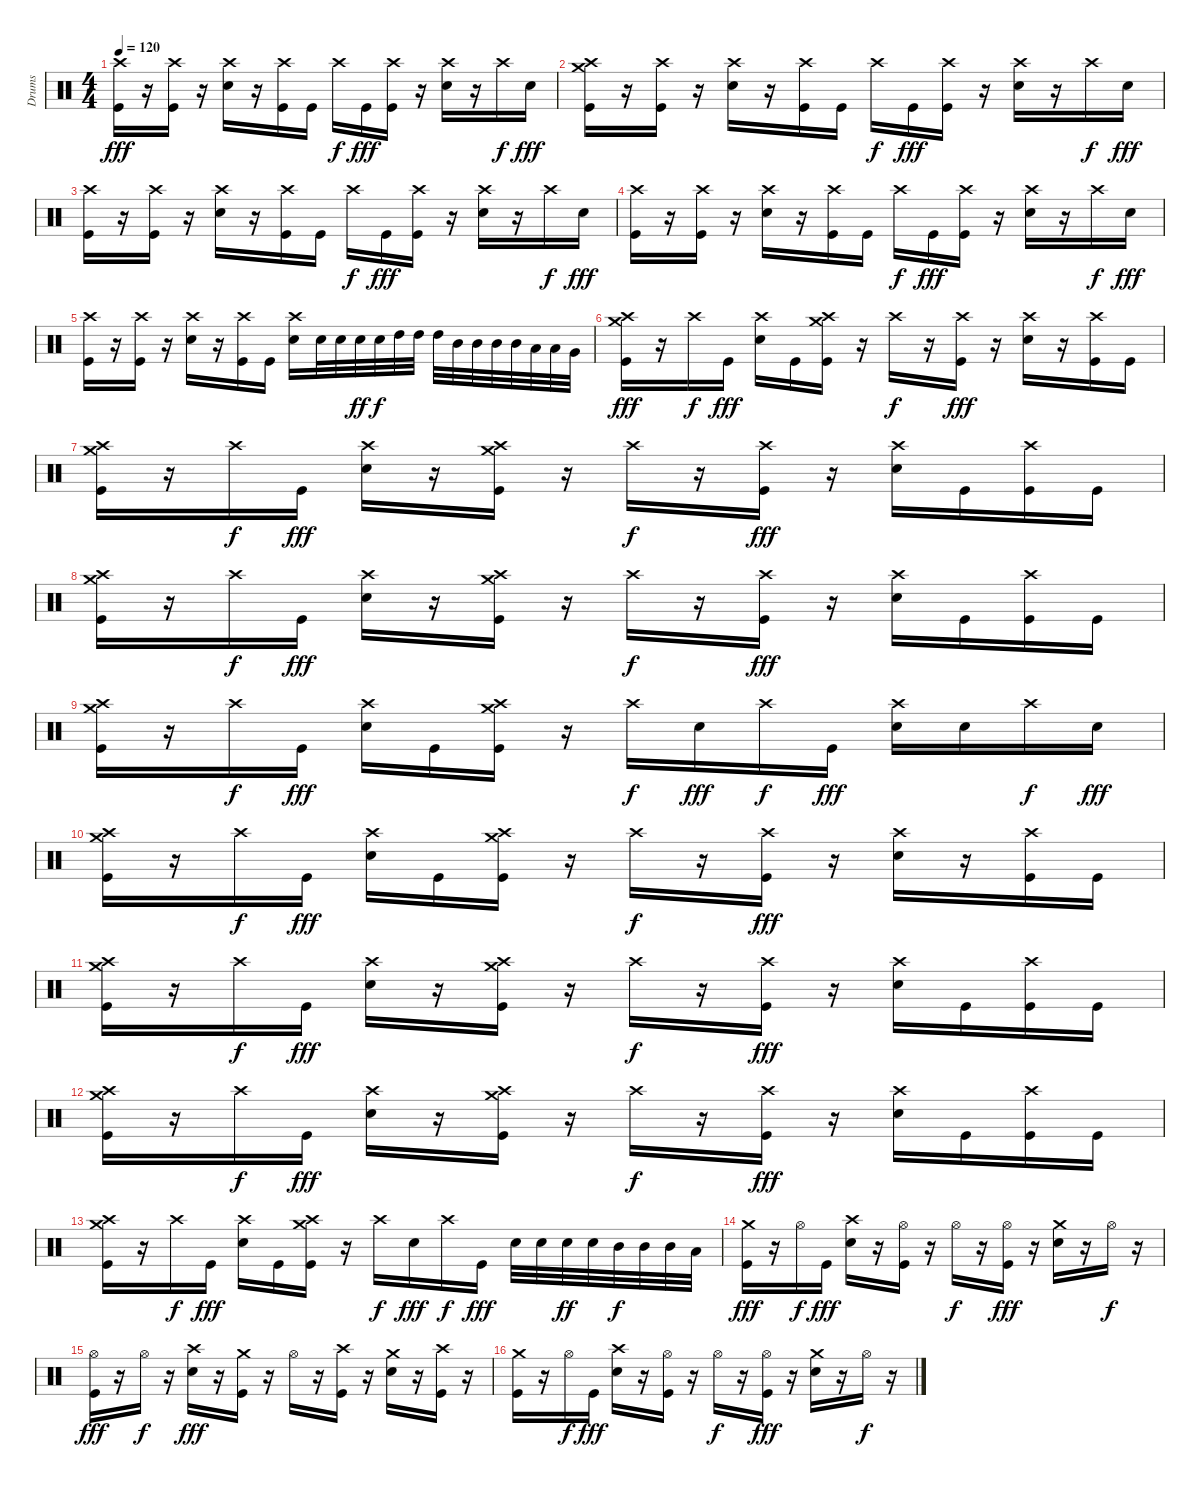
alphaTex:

\track ("Drums" "Drums") {instrument percussion}
\staff {score}
\articulation defaults
\ts (4 4)
\tempo 120
\clef neutral
\ks c
("Crash high (hit)" "Kick (hit)").16{dy fff} r.16 ("Crash high (hit)" "Kick (hit)").16 r.16 ("Crash high (hit)" "Electric Snare (hit)").16 r.16 ("Crash high (hit)" "Kick (hit)").16 "Kick (hit)".16 "Crash high (hit)".16{dy f} "Kick (hit)".16{dy fff} ("Crash high (hit)" "Kick (hit)").16 r.16 ("Crash high (hit)" "Electric Snare (hit)").16 r.16 "Crash high (hit)".16{dy f} "Electric Snare (hit)".16{dy fff} |
("Crash medium (hit)" "Crash high (hit)" "Kick (hit)").16 r.16 ("Crash high (hit)" "Kick (hit)").16 r.16 ("Crash high (hit)" "Electric Snare (hit)").16 r.16 ("Crash high (hit)" "Kick (hit)").16 "Kick (hit)".16 "Crash high (hit)".16{dy f} "Kick (hit)".16{dy fff} ("Crash high (hit)" "Kick (hit)").16 r.16 ("Crash high (hit)" "Electric Snare (hit)").16 r.16 "Crash high (hit)".16{dy f} "Electric Snare (hit)".16{dy fff} |
("Crash high (hit)" "Kick (hit)").16 r.16 ("Crash high (hit)" "Kick (hit)").16 r.16 ("Crash high (hit)" "Electric Snare (hit)").16 r.16 ("Crash high (hit)" "Kick (hit)").16 "Kick (hit)".16 "Crash high (hit)".16{dy f} "Kick (hit)".16{dy fff} ("Crash high (hit)" "Kick (hit)").16 r.16 ("Crash high (hit)" "Electric Snare (hit)").16 r.16 "Crash high (hit)".16{dy f} "Electric Snare (hit)".16{dy fff} |
("Crash high (hit)" "Kick (hit)").16 r.16 ("Crash high (hit)" "Kick (hit)").16 r.16 ("Crash high (hit)" "Electric Snare (hit)").16 r.16 ("Crash high (hit)" "Kick (hit)").16 "Kick (hit)".16 "Crash high (hit)".16{dy f} "Kick (hit)".16{dy fff} ("Crash high (hit)" "Kick (hit)").16 r.16 ("Crash high (hit)" "Electric Snare (hit)").16 r.16 "Crash high (hit)".16{dy f} "Electric Snare (hit)".16{dy fff} |
("Crash high (hit)" "Kick (hit)").16 r.16 ("Crash high (hit)" "Kick (hit)").16 r.16 ("Crash high (hit)" "Electric Snare (hit)").16 r.16 ("Crash high (hit)" "Kick (hit)").16 "Kick (hit)".16 ("Crash high (hit)" "Electric Snare (hit)").16 "Electric Snare (hit)".32 "Electric Snare (hit)".32 "Electric Snare (hit)".32{dy ff} "Electric Snare (hit)".32{dy f} "High Tom (hit)".32 "High Tom (hit)".32 "High Tom (hit)".32 "Mid Tom (hit)".32 "Mid Tom (hit)".32 "Mid Tom (hit)".32 "Mid Tom (hit)".32 "Low Tom (hit)".32 "Low Tom (hit)".32 "Very Low Tom (hit)".32 |
("Crash medium (hit)" "Crash high (hit)" "Kick (hit)").16{dy fff} r.16 "Crash high (hit)".16{dy f} "Kick (hit)".16{dy fff} ("Crash high (hit)" "Electric Snare (hit)").16 "Kick (hit)".16 ("Crash medium (hit)" "Crash high (hit)" "Kick (hit)").16 r.16 "Crash high (hit)".16{dy f} r.16 ("Crash high (hit)" "Kick (hit)").16{dy fff} r.16 ("Crash high (hit)" "Electric Snare (hit)").16 r.16 ("Crash high (hit)" "Kick (hit)").16 "Kick (hit)".16 |
("Crash medium (hit)" "Crash high (hit)" "Kick (hit)").16 r.16 "Crash high (hit)".16{dy f} "Kick (hit)".16{dy fff} ("Crash high (hit)" "Electric Snare (hit)").16 r.16 ("Crash medium (hit)" "Crash high (hit)" "Kick (hit)").16 r.16 "Crash high (hit)".16{dy f} r.16 ("Crash high (hit)" "Kick (hit)").16{dy fff} r.16 ("Crash high (hit)" "Electric Snare (hit)").16 "Kick (hit)".16 ("Crash high (hit)" "Kick (hit)").16 "Kick (hit)".16 |
("Crash medium (hit)" "Crash high (hit)" "Kick (hit)").16 r.16 "Crash high (hit)".16{dy f} "Kick (hit)".16{dy fff} ("Crash high (hit)" "Electric Snare (hit)").16 r.16 ("Crash medium (hit)" "Crash high (hit)" "Kick (hit)").16 r.16 "Crash high (hit)".16{dy f} r.16 ("Crash high (hit)" "Kick (hit)").16{dy fff} r.16 ("Crash high (hit)" "Electric Snare (hit)").16 "Kick (hit)".16 ("Crash high (hit)" "Kick (hit)").16 "Kick (hit)".16 |
("Crash medium (hit)" "Crash high (hit)" "Kick (hit)").16 r.16 "Crash high (hit)".16{dy f} "Kick (hit)".16{dy fff} ("Crash high (hit)" "Electric Snare (hit)").16 "Kick (hit)".16 ("Crash medium (hit)" "Crash high (hit)" "Kick (hit)").16 r.16 "Crash high (hit)".16{dy f} "Electric Snare (hit)".16{dy fff} "Crash high (hit)".16{dy f} "Kick (hit)".16{dy fff} ("Crash high (hit)" "Electric Snare (hit)").16 "Electric Snare (hit)".16 "Crash high (hit)".16{dy f} "Electric Snare (hit)".16{dy fff} |
("Crash medium (hit)" "Crash high (hit)" "Kick (hit)").16 r.16 "Crash high (hit)".16{dy f} "Kick (hit)".16{dy fff} ("Crash high (hit)" "Electric Snare (hit)").16 "Kick (hit)".16 ("Crash medium (hit)" "Crash high (hit)" "Kick (hit)").16 r.16 "Crash high (hit)".16{dy f} r.16 ("Crash high (hit)" "Kick (hit)").16{dy fff} r.16 ("Crash high (hit)" "Electric Snare (hit)").16 r.16 ("Crash high (hit)" "Kick (hit)").16 "Kick (hit)".16 |
("Crash medium (hit)" "Crash high (hit)" "Kick (hit)").16 r.16 "Crash high (hit)".16{dy f} "Kick (hit)".16{dy fff} ("Crash high (hit)" "Electric Snare (hit)").16 r.16 ("Crash medium (hit)" "Crash high (hit)" "Kick (hit)").16 r.16 "Crash high (hit)".16{dy f} r.16 ("Crash high (hit)" "Kick (hit)").16{dy fff} r.16 ("Crash high (hit)" "Electric Snare (hit)").16 "Kick (hit)".16 ("Crash high (hit)" "Kick (hit)").16 "Kick (hit)".16 |
("Crash medium (hit)" "Crash high (hit)" "Kick (hit)").16 r.16 "Crash high (hit)".16{dy f} "Kick (hit)".16{dy fff} ("Crash high (hit)" "Electric Snare (hit)").16 r.16 ("Crash medium (hit)" "Crash high (hit)" "Kick (hit)").16 r.16 "Crash high (hit)".16{dy f} r.16 ("Crash high (hit)" "Kick (hit)").16{dy fff} r.16 ("Crash high (hit)" "Electric Snare (hit)").16 "Kick (hit)".16 ("Crash high (hit)" "Kick (hit)").16 "Kick (hit)".16 |
("Crash medium (hit)" "Crash high (hit)" "Kick (hit)").16 r.16 "Crash high (hit)".16{dy f} "Kick (hit)".16{dy fff} ("Crash high (hit)" "Electric Snare (hit)").16 "Kick (hit)".16 ("Crash medium (hit)" "Crash high (hit)" "Kick (hit)").16 r.16 "Crash high (hit)".16{dy f} "Electric Snare (hit)".16{dy fff} "Crash high (hit)".16{dy f} "Kick (hit)".16{dy fff} "Electric Snare (hit)".32 "Electric Snare (hit)".32 "Electric Snare (hit)".32{dy ff} "Electric Snare (hit)".32 "Mid Tom (hit)".32{dy f} "Mid Tom (hit)".32 "Mid Tom (hit)".32 "Low Tom (hit)".32 |
("Crash medium (hit)" "Kick (hit)").16{dy fff} r.16 "Hi-Hat (open)".16{dy f} "Kick (hit)".16{dy fff} ("Crash high (hit)" "Electric Snare (hit)").16 r.16 ("Hi-Hat (open)" "Kick (hit)").16 r.16 "Hi-Hat (open)".16{dy f} r.16 ("Hi-Hat (open)" "Kick (hit)").16{dy fff} r.16 ("Crash medium (hit)" "Electric Snare (hit)").16 r.16 "Hi-Hat (open)".16{dy f} r.16 |
("Hi-Hat (open)" "Kick (hit)").16{dy fff} r.16 "Hi-Hat (open)".16{dy f} r.16 ("Crash high (hit)" "Electric Snare (hit)").16{dy fff} r.16 ("Crash medium (hit)" "Kick (hit)").16 r.16 "Hi-Hat (open)".16 r.16 ("Kick (hit)" "Crash high (hit)").16 r.16 ("Crash medium (hit)" "Electric Snare (hit)").16 r.16 ("Kick (hit)" "Crash high (hit)").16 r.16 |
("Crash medium (hit)" "Kick (hit)").16 r.16 "Hi-Hat (open)".16{dy f} "Kick (hit)".16{dy fff} ("Crash high (hit)" "Electric Snare (hit)").16 r.16 ("Hi-Hat (open)" "Kick (hit)").16 r.16 "Hi-Hat (open)".16{dy f} r.16 ("Hi-Hat (open)" "Kick (hit)").16{dy fff} r.16 ("Crash medium (hit)" "Electric Snare (hit)").16 r.16 "Hi-Hat (open)".16{dy f} r.16
